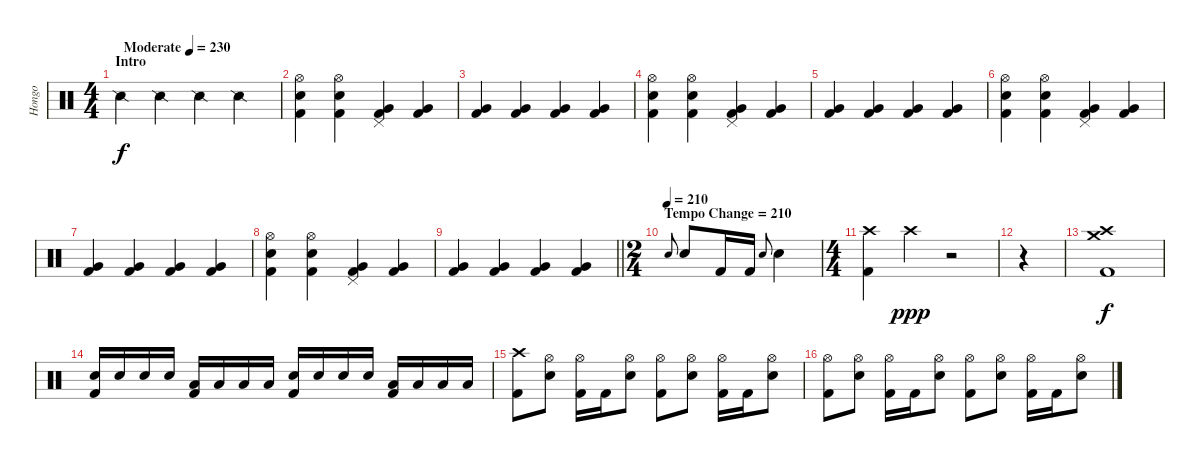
\track ("Hongo" "Hongo") {instrument percussion}
\staff {score}
\articulation defaults
\ts (4 4)
\section ("" "Intro")
\tempo (230 "Moderate")
\clef neutral
\ks c "Snare (side stick) 2".4{dy f} "Snare (side stick) 2".4 "Snare (side stick) 2".4 "Snare (side stick) 2".4
|
("Hi-Hat (open)" "Electric Snare (hit)" "Kick (hit) 2").4 ("Hi-Hat (open)" "Electric Snare (hit)" "Kick (hit) 2").4 ("Pedal Hi-Hat (hit)" "Very Low Tom (hit)" "Kick (hit) 2").4 ("Very Low Tom (hit)" "Kick (hit) 2").4 |
("Very Low Tom (hit)" "Kick (hit) 2").4 ("Very Low Tom (hit)" "Kick (hit) 2").4 ("Very Low Tom (hit)" "Kick (hit) 2").4 ("Very Low Tom (hit)" "Kick (hit) 2").4 |
("Hi-Hat (open)" "Electric Snare (hit)" "Kick (hit) 2").4 ("Hi-Hat (open)" "Electric Snare (hit)" "Kick (hit) 2").4 ("Pedal Hi-Hat (hit)" "Very Low Tom (hit)" "Kick (hit) 2").4 ("Very Low Tom (hit)" "Kick (hit) 2").4 |
("Very Low Tom (hit)" "Kick (hit) 2").4 ("Very Low Tom (hit)" "Kick (hit) 2").4 ("Very Low Tom (hit)" "Kick (hit) 2").4 ("Very Low Tom (hit)" "Kick (hit) 2").4 |
("Hi-Hat (open)" "Electric Snare (hit)" "Kick (hit) 2").4 ("Hi-Hat (open)" "Electric Snare (hit)" "Kick (hit) 2").4 ("Pedal Hi-Hat (hit)" "Very Low Tom (hit)" "Kick (hit) 2").4 ("Very Low Tom (hit)" "Kick (hit) 2").4 |
("Very Low Tom (hit)" "Kick (hit) 2").4 ("Very Low Tom (hit)" "Kick (hit) 2").4 ("Very Low Tom (hit)" "Kick (hit) 2").4 ("Very Low Tom (hit)" "Kick (hit) 2").4 |
("Hi-Hat (open)" "Electric Snare (hit)" "Kick (hit) 2").4 ("Hi-Hat (open)" "Electric Snare (hit)" "Kick (hit) 2").4 ("Pedal Hi-Hat (hit)" "Very Low Tom (hit)" "Kick (hit) 2").4 ("Very Low Tom (hit)" "Kick (hit) 2").4 |
\barLineRight lightlight
("Very Low Tom (hit)" "Kick (hit) 2").4 ("Very Low Tom (hit)" "Kick (hit) 2").4 ("Very Low Tom (hit)" "Kick (hit) 2").4 ("Very Low Tom (hit)" "Kick (hit) 2").4 |
\ts (2 4)
\section ("" "Tempo Change = 210")
\tempo (210)
"Electric Snare (hit)".8{gr onbeat} "Electric Snare (hit)".8 "Kick (hit) 2".16 "Kick (hit) 2".16 "Electric Snare (hit)".8{gr onbeat} "Electric Snare (hit)".4 |
\ts (4 4)
("Crash high (hit)" "Kick (hit) 2").4 "Crash high (hit)".4{dy ppp} r.2 |
r.4 |
("Crash high (hit)" "Crash medium (hit)" "Kick (hit) 2").1{dy f} |
("Electric Snare (hit)" "Kick (hit) 2").16 "Electric Snare (hit)".16 "Electric Snare (hit)".16 "Electric Snare (hit)".16 ("Low Tom (hit)" "Kick (hit) 2").16 "Low Tom (hit)".16 "Low Tom (hit)".16 "Low Tom (hit)".16 ("Electric Snare (hit)" "Kick (hit) 2").16 "Electric Snare (hit)".16 "Electric Snare (hit)".16 "Electric Snare (hit)".16 ("Low Tom (hit)" "Kick (hit) 2").16 "Low Tom (hit)".16 "Low Tom (hit)".16 "Low Tom (hit)".16 |
("Crash high (hit)" "Kick (hit) 2").8 ("Hi-Hat (open)" "Electric Snare (hit)").8 ("Hi-Hat (open)" "Kick (hit) 2").16 "Kick (hit) 2".16 ("Hi-Hat (open)" "Electric Snare (hit)").8 ("Hi-Hat (open)" "Kick (hit) 2").8 ("Hi-Hat (open)" "Electric Snare (hit)").8 ("Hi-Hat (open)" "Kick (hit) 2").16 "Kick (hit) 2".16 ("Hi-Hat (open)" "Electric Snare (hit)").8 |
("Hi-Hat (open)" "Kick (hit) 2").8 ("Hi-Hat (open)" "Electric Snare (hit)").8 ("Hi-Hat (open)" "Kick (hit) 2").16 "Kick (hit) 2".16 ("Hi-Hat (open)" "Electric Snare (hit)").8 ("Hi-Hat (open)" "Kick (hit) 2").8 ("Hi-Hat (open)" "Electric Snare (hit)").8 ("Hi-Hat (open)" "Kick (hit) 2").16 "Kick (hit) 2".16 ("Hi-Hat (open)" "Electric Snare (hit)").8
